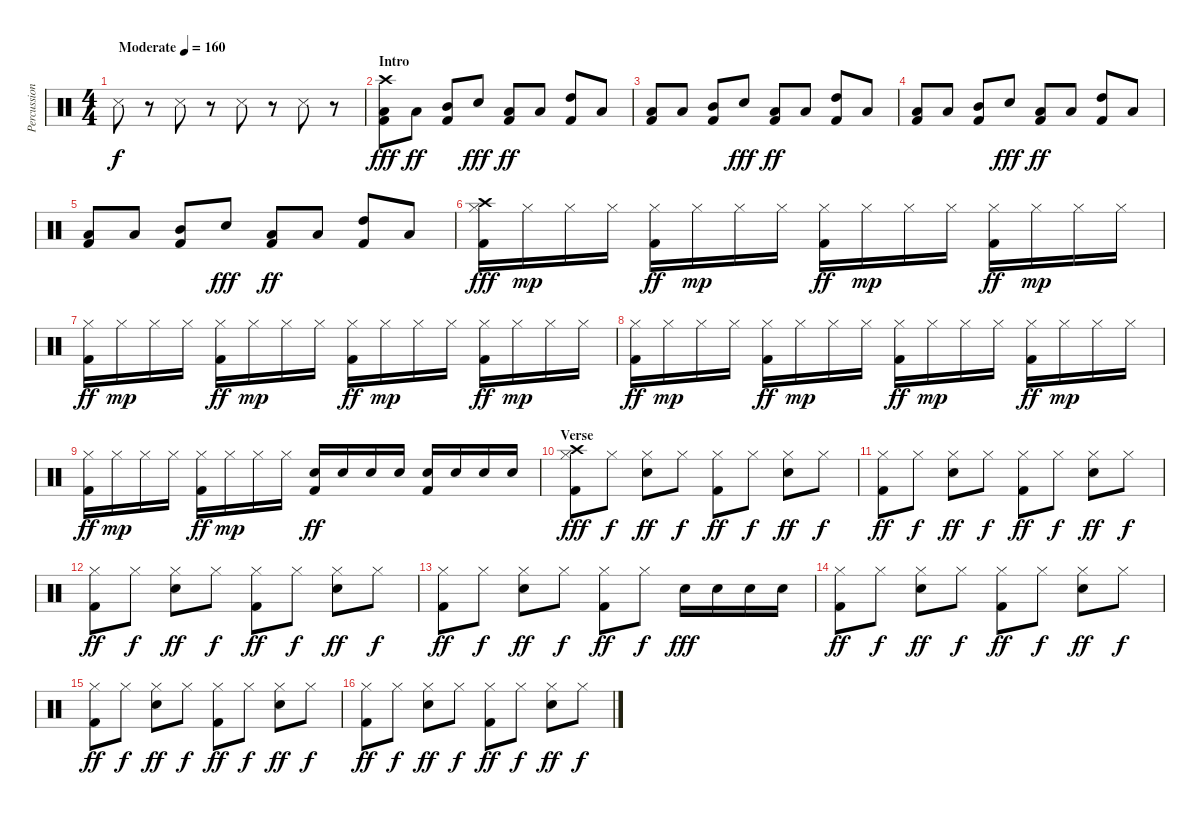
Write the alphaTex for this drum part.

\track ("Percussion" "Percussion") {instrument percussion}
\staff {score}
\articulation defaults
\ts (4 4)
\tempo (160 "Moderate")
\clef neutral
\ks c "Snare (side stick) 3".8{dy f}
r.8 "Snare (side stick) 3".8 r.8 "Snare (side stick) 3".8 r.8 "Snare (side stick) 3".8 r.8 |
\section ("" "Intro")
("Low Floor Tom (hit)" "Kick (hit) 2" "Crash high (hit)").8{dy fff} "Low Floor Tom (hit)".8{dy ff} ("Mid Tom (hit)" "Kick (hit) 2").8 "Snare (hit) 2".8{dy fff} ("Low Floor Tom (hit)" "Kick (hit) 2").8{dy ff} "Low Floor Tom (hit)".8 ("High Tom (hit)" "Kick (hit) 2").8 "Low Floor Tom (hit)".8 |
("Low Floor Tom (hit)" "Kick (hit) 2").8 "Low Floor Tom (hit)".8 ("Mid Tom (hit)" "Kick (hit) 2").8 "Snare (hit) 2".8{dy fff} ("Low Floor Tom (hit)" "Kick (hit) 2").8{dy ff} "Low Floor Tom (hit)".8 ("High Tom (hit)" "Kick (hit) 2").8 "Low Floor Tom (hit)".8 |
("Low Floor Tom (hit)" "Kick (hit) 2").8 "Low Floor Tom (hit)".8 ("Mid Tom (hit)" "Kick (hit) 2").8 "Snare (hit) 2".8{dy fff} ("Low Floor Tom (hit)" "Kick (hit) 2").8{dy ff} "Low Floor Tom (hit)".8 ("High Tom (hit)" "Kick (hit) 2").8 "Low Floor Tom (hit)".8 |
("Low Floor Tom (hit)" "Kick (hit) 2").8 "Low Floor Tom (hit)".8 ("Mid Tom (hit)" "Kick (hit) 2").8 "Snare (hit) 2".8{dy fff} ("Low Floor Tom (hit)" "Kick (hit) 2").8{dy ff} "Low Floor Tom (hit)".8 ("High Tom (hit)" "Kick (hit) 2").8 "Low Floor Tom (hit)".8 |
("Hi-Hat (closed)" "Kick (hit) 2" "Crash high (hit)").16{dy fff} "Hi-Hat (closed)".16{dy mp} "Hi-Hat (closed)".16 "Hi-Hat (closed)".16 ("Hi-Hat (closed)" "Kick (hit) 2").16{dy ff} "Hi-Hat (closed)".16{dy mp} "Hi-Hat (closed)".16 "Hi-Hat (closed)".16 ("Hi-Hat (closed)" "Kick (hit) 2").16{dy ff} "Hi-Hat (closed)".16{dy mp} "Hi-Hat (closed)".16 "Hi-Hat (closed)".16 ("Hi-Hat (closed)" "Kick (hit) 2").16{dy ff} "Hi-Hat (closed)".16{dy mp} "Hi-Hat (closed)".16 "Hi-Hat (closed)".16 |
("Hi-Hat (closed)" "Kick (hit) 2").16{dy ff} "Hi-Hat (closed)".16{dy mp} "Hi-Hat (closed)".16 "Hi-Hat (closed)".16 ("Hi-Hat (closed)" "Kick (hit) 2").16{dy ff} "Hi-Hat (closed)".16{dy mp} "Hi-Hat (closed)".16 "Hi-Hat (closed)".16 ("Hi-Hat (closed)" "Kick (hit) 2").16{dy ff} "Hi-Hat (closed)".16{dy mp} "Hi-Hat (closed)".16 "Hi-Hat (closed)".16 ("Hi-Hat (closed)" "Kick (hit) 2").16{dy ff} "Hi-Hat (closed)".16{dy mp} "Hi-Hat (closed)".16 "Hi-Hat (closed)".16 |
("Hi-Hat (closed)" "Kick (hit) 2").16{dy ff} "Hi-Hat (closed)".16{dy mp} "Hi-Hat (closed)".16 "Hi-Hat (closed)".16 ("Hi-Hat (closed)" "Kick (hit) 2").16{dy ff} "Hi-Hat (closed)".16{dy mp} "Hi-Hat (closed)".16 "Hi-Hat (closed)".16 ("Hi-Hat (closed)" "Kick (hit) 2").16{dy ff} "Hi-Hat (closed)".16{dy mp} "Hi-Hat (closed)".16 "Hi-Hat (closed)".16 ("Hi-Hat (closed)" "Kick (hit) 2").16{dy ff} "Hi-Hat (closed)".16{dy mp} "Hi-Hat (closed)".16 "Hi-Hat (closed)".16 |
("Hi-Hat (closed)" "Kick (hit) 2").16{dy ff} "Hi-Hat (closed)".16{dy mp} "Hi-Hat (closed)".16 "Hi-Hat (closed)".16 ("Hi-Hat (closed)" "Kick (hit) 2").16{dy ff} "Hi-Hat (closed)".16{dy mp} "Hi-Hat (closed)".16 "Hi-Hat (closed)".16 ("Snare (hit) 2" "Kick (hit) 2").16{dy ff} "Snare (hit) 2".16 "Snare (hit) 2".16 "Snare (hit) 2".16 ("Snare (hit) 2" "Kick (hit) 2").16 "Snare (hit) 2".16 "Snare (hit) 2".16 "Snare (hit) 2".16 |
\section ("" "Verse")
("Hi-Hat (closed)" "Kick (hit) 2" "Crash high (hit)").8{dy fff} "Hi-Hat (closed)".8{dy f} ("Hi-Hat (closed)" "Snare (hit) 2").8{dy ff} "Hi-Hat (closed)".8{dy f} ("Hi-Hat (closed)" "Kick (hit) 2").8{dy ff} "Hi-Hat (closed)".8{dy f} ("Hi-Hat (closed)" "Snare (hit) 2").8{dy ff} "Hi-Hat (closed)".8{dy f} |
("Hi-Hat (closed)" "Kick (hit) 2").8{dy ff} "Hi-Hat (closed)".8{dy f} ("Hi-Hat (closed)" "Snare (hit) 2").8{dy ff} "Hi-Hat (closed)".8{dy f} ("Hi-Hat (closed)" "Kick (hit) 2").8{dy ff} "Hi-Hat (closed)".8{dy f} ("Hi-Hat (closed)" "Snare (hit) 2").8{dy ff} "Hi-Hat (closed)".8{dy f} |
("Hi-Hat (closed)" "Kick (hit) 2").8{dy ff} "Hi-Hat (closed)".8{dy f} ("Hi-Hat (closed)" "Snare (hit) 2").8{dy ff} "Hi-Hat (closed)".8{dy f} ("Hi-Hat (closed)" "Kick (hit) 2").8{dy ff} "Hi-Hat (closed)".8{dy f} ("Hi-Hat (closed)" "Snare (hit) 2").8{dy ff} "Hi-Hat (closed)".8{dy f} |
("Hi-Hat (closed)" "Kick (hit) 2").8{dy ff} "Hi-Hat (closed)".8{dy f} ("Hi-Hat (closed)" "Snare (hit) 2").8{dy ff} "Hi-Hat (closed)".8{dy f} ("Hi-Hat (closed)" "Kick (hit) 2").8{dy ff} "Hi-Hat (closed)".8{dy f} "Snare (hit) 2".16{dy fff} "Snare (hit) 2".16 "Snare (hit) 2".16 "Snare (hit) 2".16 |
("Hi-Hat (closed)" "Kick (hit) 2").8{dy ff} "Hi-Hat (closed)".8{dy f} ("Hi-Hat (closed)" "Snare (hit) 2").8{dy ff} "Hi-Hat (closed)".8{dy f} ("Hi-Hat (closed)" "Kick (hit) 2").8{dy ff} "Hi-Hat (closed)".8{dy f} ("Hi-Hat (closed)" "Snare (hit) 2").8{dy ff} "Hi-Hat (closed)".8{dy f} |
("Hi-Hat (closed)" "Kick (hit) 2").8{dy ff} "Hi-Hat (closed)".8{dy f} ("Hi-Hat (closed)" "Snare (hit) 2").8{dy ff} "Hi-Hat (closed)".8{dy f} ("Hi-Hat (closed)" "Kick (hit) 2").8{dy ff} "Hi-Hat (closed)".8{dy f} ("Hi-Hat (closed)" "Snare (hit) 2").8{dy ff} "Hi-Hat (closed)".8{dy f} |
("Hi-Hat (closed)" "Kick (hit) 2").8{dy ff} "Hi-Hat (closed)".8{dy f} ("Hi-Hat (closed)" "Snare (hit) 2").8{dy ff} "Hi-Hat (closed)".8{dy f} ("Hi-Hat (closed)" "Kick (hit) 2").8{dy ff} "Hi-Hat (closed)".8{dy f} ("Hi-Hat (closed)" "Snare (hit) 2").8{dy ff} "Hi-Hat (closed)".8{dy f}
